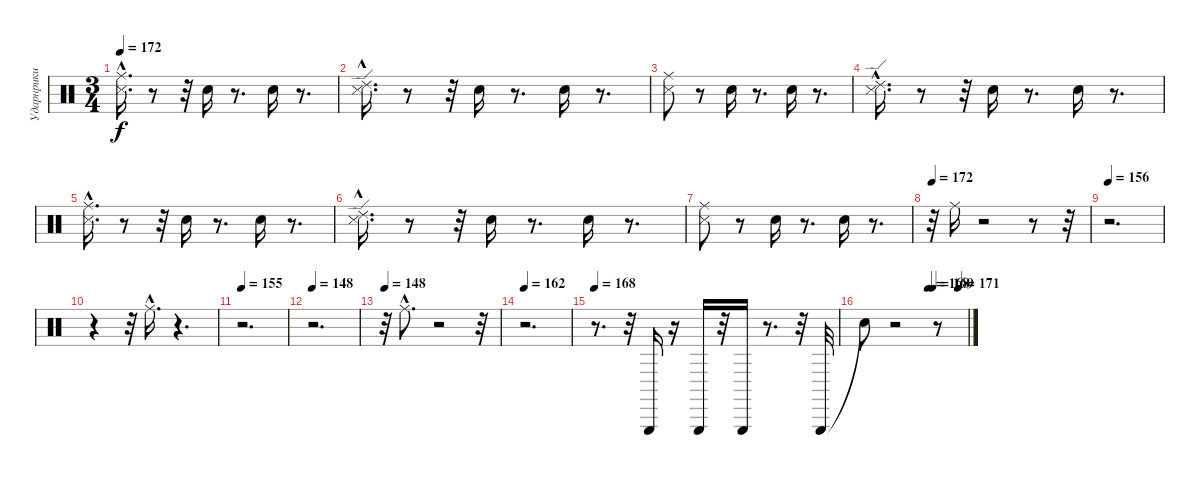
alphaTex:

\track ("Ударнрики" "Ударнрики") {instrument percussion}
\staff {score}
\articulation defaults
\ts (3 4)
\tempo 172
\clef neutral
\ks c
("Ride (middle)" "Metronome (hit)"{hac}).16{d dy f} r.8 r.32 "Electric Snare (hit)".16 r.8{d} "Electric Snare (hit)".16 r.8{d} |
("Ride (edge) 2" "Metronome (hit)"{hac}).16{d} r.8 r.32 "Electric Snare (hit)".16 r.8{d} "Electric Snare (hit)".16 r.8{d} |
("Ride (middle)" "Metronome (hit)").8 r.8 "Electric Snare (hit)".16 r.8{d} "Electric Snare (hit)".16 r.8{d} |
("Ride (edge) 2"{hac} "Metronome (hit)"{hac}).16{d} r.8 r.32 "Electric Snare (hit)".16 r.8{d} "Electric Snare (hit)".16 r.8{d} |
("Ride (middle)" "Metronome (hit)"{hac}).16{d} r.8 r.32 "Electric Snare (hit)".16 r.8{d} "Electric Snare (hit)".16 r.8{d} |
("Ride (edge) 2" "Metronome (hit)"{hac}).16{d} r.8 r.32 "Electric Snare (hit)".16 r.8{d} "Electric Snare (hit)".16 r.8{d} |
("Ride (middle)" "Metronome (hit)").8 r.8 "Electric Snare (hit)".16 r.8{d} "Electric Snare (hit)".16 r.8{d} |
\tempo 172
r.32 "Ride (middle)".16 r.2 r.8 r.32 |
\tempo 156
r.2{d} |
r.4 r.32 "Ride (middle)"{hac}.16{d} r.4{d} |
\tempo 155
r.2{d} |
\tempo 148
r.2{d} |
\tempo 148
r.32 "Ride (middle)"{hac}.8{d} r.2 r.32 |
\tempo 162
r.2{d} |
\tempo 168
r.8{d} r.32 "Triangle (hit)".16 r.16 "Triangle (hit)".16 r.32 "Triangle (hit)".16 r.8{d} r.32 "Triangle (hit)".32 |
\tempo (168 0.625)
\tempo (169 0.6666666666666666)
\tempo (171 0.9166666666666666)
"Snare (hit)"{t}.8 r.2 r.8
